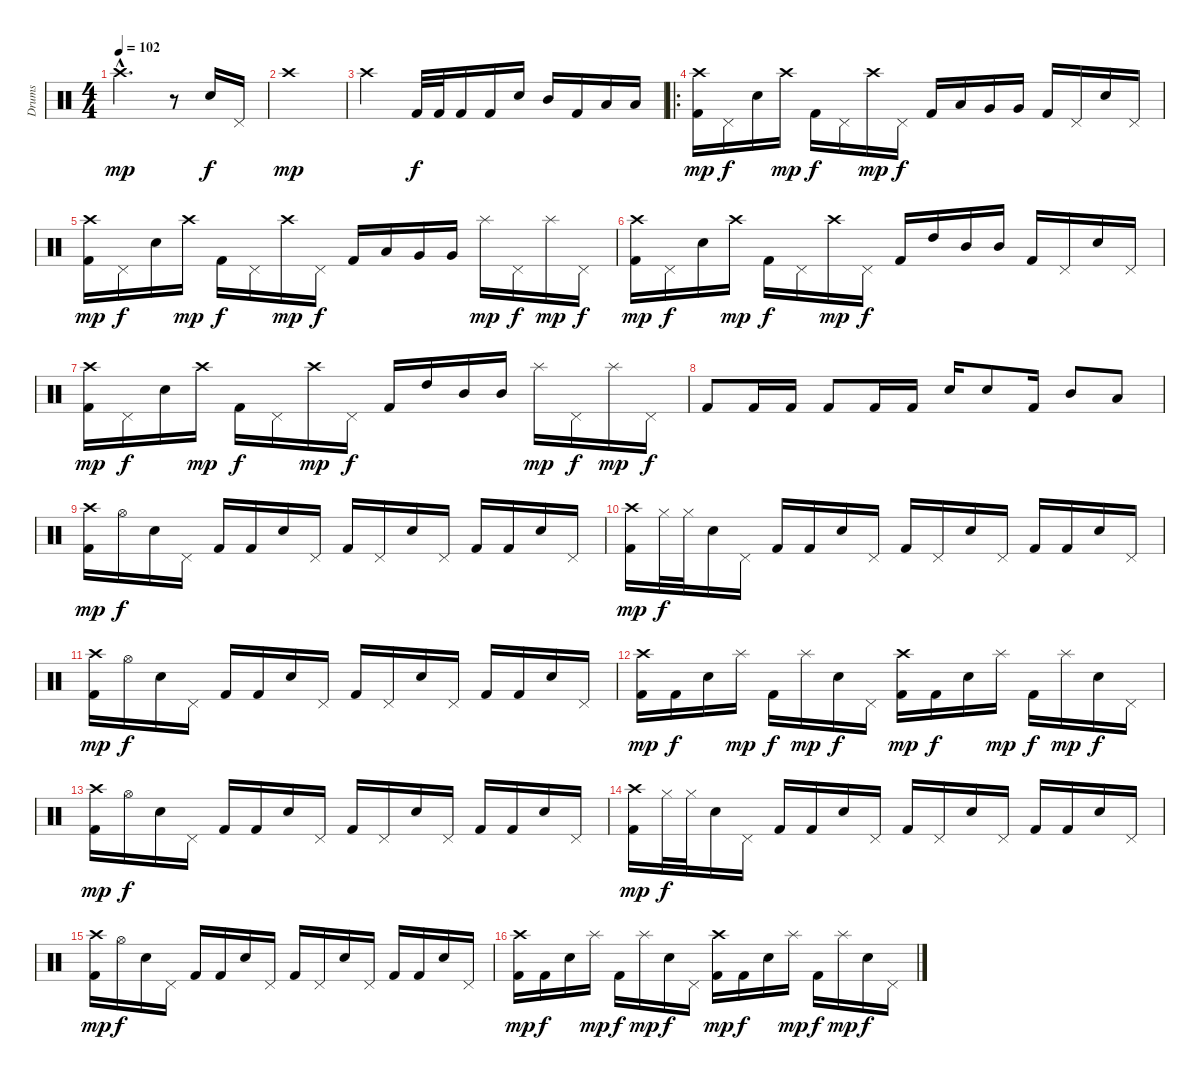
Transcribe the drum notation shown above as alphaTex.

\track ("Drums" "Drums") {instrument percussion}
\staff {score}
\articulation defaults
\ts (4 4)
\tempo 102
\clef neutral
\ks c "Crash high (hit)"{hac}.2{d dy mp}
r.8 "Electric Snare (hit)".16{dy f} "Pedal Hi-Hat (hit)".16 |
"Crash high (hit)".1{dy mp} |
"Crash high (hit)".2 "Kick (hit) 2".32{dy f} "Kick (hit) 2".32 "Kick (hit) 2".16 "Kick (hit) 2".16 "Electric Snare (hit)".16 "Mid Tom (hit)".16 "Kick (hit) 2".16 "Low Tom (hit)".16 "Low Tom (hit)".16 |
\ro
("Crash high (hit)" "Kick (hit) 2").16{dy mp} "Pedal Hi-Hat (hit)".16{dy f} "Electric Snare (hit)".16 "Crash high (hit)".16{dy mp} "Kick (hit) 2".16{dy f} "Pedal Hi-Hat (hit)".16 "Crash high (hit)".16{dy mp} "Pedal Hi-Hat (hit)".16{dy f} "Kick (hit) 2".16 "Low Tom (hit)".16 "Very Low Tom (hit)".16 "Very Low Tom (hit)".16 "Kick (hit) 2".16 "Pedal Hi-Hat (hit)".16 "Electric Snare (hit)".16 "Pedal Hi-Hat (hit)".16 |
("Crash high (hit)" "Kick (hit) 2").16{dy mp} "Pedal Hi-Hat (hit)".16{dy f} "Electric Snare (hit)".16 "Crash high (hit)".16{dy mp} "Kick (hit) 2".16{dy f} "Pedal Hi-Hat (hit)".16 "Crash high (hit)".16{dy mp} "Pedal Hi-Hat (hit)".16{dy f} "Kick (hit) 2".16 "Low Tom (hit)".16 "Very Low Tom (hit)".16 "Very Low Tom (hit)".16 "Splash (hit)".16{dy mp} "Pedal Hi-Hat (hit)".16{dy f} "Splash (hit)".16{dy mp} "Pedal Hi-Hat (hit)".16{dy f} |
("Crash high (hit)" "Kick (hit) 2").16{dy mp} "Pedal Hi-Hat (hit)".16{dy f} "Electric Snare (hit)".16 "Crash high (hit)".16{dy mp} "Kick (hit) 2".16{dy f} "Pedal Hi-Hat (hit)".16 "Crash high (hit)".16{dy mp} "Pedal Hi-Hat (hit)".16{dy f} "Kick (hit) 2".16 "High Tom (hit)".16 "Mid Tom (hit)".16 "Mid Tom (hit)".16 "Kick (hit) 2".16 "Pedal Hi-Hat (hit)".16 "Electric Snare (hit)".16 "Pedal Hi-Hat (hit)".16 |
("Crash high (hit)" "Kick (hit) 2").16{dy mp} "Pedal Hi-Hat (hit)".16{dy f} "Electric Snare (hit)".16 "Crash high (hit)".16{dy mp} "Kick (hit) 2".16{dy f} "Pedal Hi-Hat (hit)".16 "Crash high (hit)".16{dy mp} "Pedal Hi-Hat (hit)".16{dy f} "Kick (hit) 2".16 "High Tom (hit)".16 "Mid Tom (hit)".16 "Mid Tom (hit)".16 "Splash (hit)".16{dy mp} "Pedal Hi-Hat (hit)".16{dy f} "Splash (hit)".16{dy mp} "Pedal Hi-Hat (hit)".16{dy f} |
"Kick (hit) 2".8 "Kick (hit) 2".16 "Kick (hit) 2".16 "Kick (hit) 2".8 "Kick (hit) 2".16 "Kick (hit) 2".16 "Electric Snare (hit)".16 "Electric Snare (hit)".8 "Kick (hit) 2".16 "Mid Tom (hit)".8 "Low Tom (hit)".8 |
("Crash high (hit)" "Kick (hit) 2").16{dy mp} "Hi-Hat (open)".16{dy f} "Electric Snare (hit)".16 "Pedal Hi-Hat (hit)".16 "Kick (hit) 2".16 "Kick (hit) 2".16 "Electric Snare (hit)".16 "Pedal Hi-Hat (hit)".16 "Kick (hit) 2".16 "Pedal Hi-Hat (hit)".16 "Electric Snare (hit)".16 "Pedal Hi-Hat (hit)".16 "Kick (hit) 2".16 "Kick (hit) 2".16 "Electric Snare (hit)".16 "Pedal Hi-Hat (hit)".16 |
("Crash high (hit)" "Kick (hit) 2").16{dy mp} "Hi-Hat (closed)".32{dy f} "Hi-Hat (closed)".32 "Electric Snare (hit)".16 "Pedal Hi-Hat (hit)".16 "Kick (hit) 2".16 "Kick (hit) 2".16 "Electric Snare (hit)".16 "Pedal Hi-Hat (hit)".16 "Kick (hit) 2".16 "Pedal Hi-Hat (hit)".16 "Electric Snare (hit)".16 "Pedal Hi-Hat (hit)".16 "Kick (hit) 2".16 "Kick (hit) 2".16 "Electric Snare (hit)".16 "Pedal Hi-Hat (hit)".16 |
("Crash high (hit)" "Kick (hit) 2").16{dy mp} "Hi-Hat (open)".16{dy f} "Electric Snare (hit)".16 "Pedal Hi-Hat (hit)".16 "Kick (hit) 2".16 "Kick (hit) 2".16 "Electric Snare (hit)".16 "Pedal Hi-Hat (hit)".16 "Kick (hit) 2".16 "Pedal Hi-Hat (hit)".16 "Electric Snare (hit)".16 "Pedal Hi-Hat (hit)".16 "Kick (hit) 2".16 "Kick (hit) 2".16 "Electric Snare (hit)".16 "Pedal Hi-Hat (hit)".16 |
("Crash high (hit)" "Kick (hit) 2").16{dy mp} "Kick (hit) 2".16{dy f} "Electric Snare (hit)".16 "Splash (hit)".16{dy mp} "Kick (hit) 2".16{dy f} "Splash (hit)".16{dy mp} "Electric Snare (hit)".16{dy f} "Pedal Hi-Hat (hit)".16 ("Crash high (hit)" "Kick (hit) 2").16{dy mp} "Kick (hit) 2".16{dy f} "Electric Snare (hit)".16 "Splash (hit)".16{dy mp} "Kick (hit) 2".16{dy f} "Splash (hit)".16{dy mp} "Electric Snare (hit)".16{dy f} "Pedal Hi-Hat (hit)".16 |
("Crash high (hit)" "Kick (hit) 2").16{dy mp} "Hi-Hat (open)".16{dy f} "Electric Snare (hit)".16 "Pedal Hi-Hat (hit)".16 "Kick (hit) 2".16 "Kick (hit) 2".16 "Electric Snare (hit)".16 "Pedal Hi-Hat (hit)".16 "Kick (hit) 2".16 "Pedal Hi-Hat (hit)".16 "Electric Snare (hit)".16 "Pedal Hi-Hat (hit)".16 "Kick (hit) 2".16 "Kick (hit) 2".16 "Electric Snare (hit)".16 "Pedal Hi-Hat (hit)".16 |
("Crash high (hit)" "Kick (hit) 2").16{dy mp} "Hi-Hat (closed)".32{dy f} "Hi-Hat (closed)".32 "Electric Snare (hit)".16 "Pedal Hi-Hat (hit)".16 "Kick (hit) 2".16 "Kick (hit) 2".16 "Electric Snare (hit)".16 "Pedal Hi-Hat (hit)".16 "Kick (hit) 2".16 "Pedal Hi-Hat (hit)".16 "Electric Snare (hit)".16 "Pedal Hi-Hat (hit)".16 "Kick (hit) 2".16 "Kick (hit) 2".16 "Electric Snare (hit)".16 "Pedal Hi-Hat (hit)".16 |
("Crash high (hit)" "Kick (hit) 2").16{dy mp} "Hi-Hat (open)".16{dy f} "Electric Snare (hit)".16 "Pedal Hi-Hat (hit)".16 "Kick (hit) 2".16 "Kick (hit) 2".16 "Electric Snare (hit)".16 "Pedal Hi-Hat (hit)".16 "Kick (hit) 2".16 "Pedal Hi-Hat (hit)".16 "Electric Snare (hit)".16 "Pedal Hi-Hat (hit)".16 "Kick (hit) 2".16 "Kick (hit) 2".16 "Electric Snare (hit)".16 "Pedal Hi-Hat (hit)".16 |
("Crash high (hit)" "Kick (hit) 2").16{dy mp} "Kick (hit) 2".16{dy f} "Electric Snare (hit)".16 "Splash (hit)".16{dy mp} "Kick (hit) 2".16{dy f} "Splash (hit)".16{dy mp} "Electric Snare (hit)".16{dy f} "Pedal Hi-Hat (hit)".16 ("Crash high (hit)" "Kick (hit) 2").16{dy mp} "Kick (hit) 2".16{dy f} "Electric Snare (hit)".16 "Splash (hit)".16{dy mp} "Kick (hit) 2".16{dy f} "Splash (hit)".16{dy mp} "Electric Snare (hit)".16{dy f} "Pedal Hi-Hat (hit)".16
